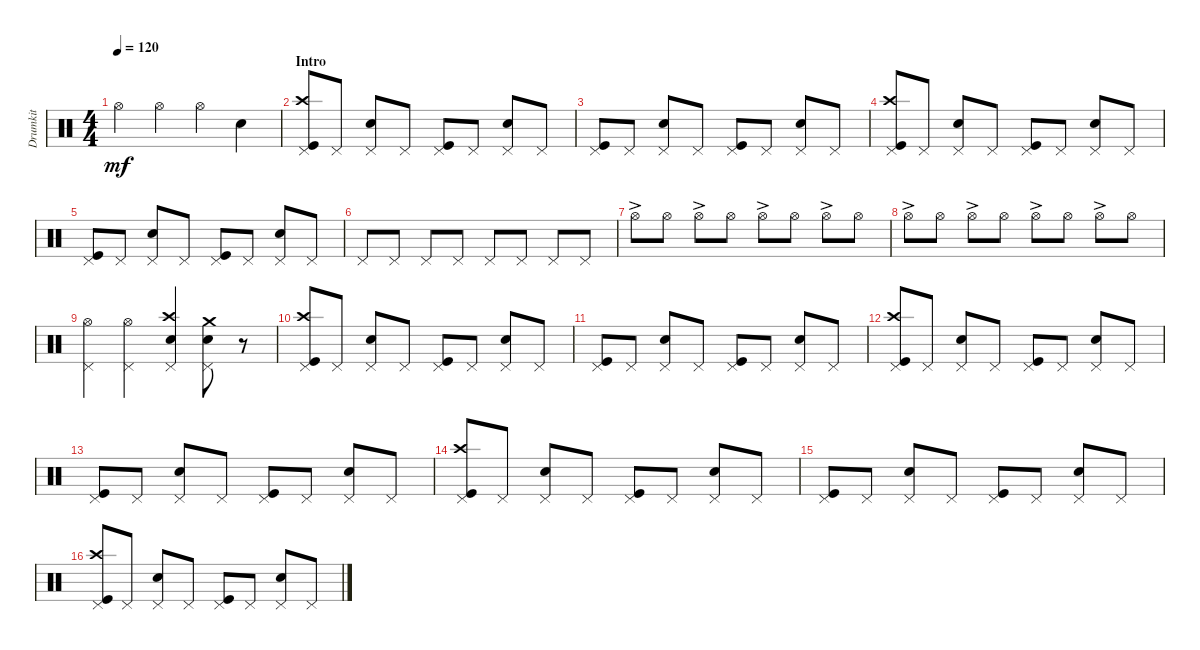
\track ("Drumkit" "Drumkit") {instrument percussion}
\staff {score}
\articulation defaults
\ts (4 4)
\tempo 120
\clef neutral
\ks c "Hi-Hat (open)".4{dy mf} "Hi-Hat (open)".4 "Hi-Hat (open)".4 "Snare (hit) 2".4
|
\section ("" "Intro")
("Kick (hit)" "Crash high (hit)" "Pedal Hi-Hat (hit)").8 "Pedal Hi-Hat (hit)".8 ("Pedal Hi-Hat (hit)" "Snare (hit) 2").8 "Pedal Hi-Hat (hit)".8 ("Kick (hit)" "Pedal Hi-Hat (hit)").8 "Pedal Hi-Hat (hit)".8 ("Pedal Hi-Hat (hit)" "Snare (hit) 2").8 "Pedal Hi-Hat (hit)".8 |
("Kick (hit)" "Pedal Hi-Hat (hit)").8 "Pedal Hi-Hat (hit)".8 ("Pedal Hi-Hat (hit)" "Snare (hit) 2").8 "Pedal Hi-Hat (hit)".8 ("Kick (hit)" "Pedal Hi-Hat (hit)").8 "Pedal Hi-Hat (hit)".8 ("Pedal Hi-Hat (hit)" "Snare (hit) 2").8 "Pedal Hi-Hat (hit)".8 |
("Kick (hit)" "Crash high (hit)" "Pedal Hi-Hat (hit)").8 "Pedal Hi-Hat (hit)".8 ("Pedal Hi-Hat (hit)" "Snare (hit) 2").8 "Pedal Hi-Hat (hit)".8 ("Kick (hit)" "Pedal Hi-Hat (hit)").8 "Pedal Hi-Hat (hit)".8 ("Pedal Hi-Hat (hit)" "Snare (hit) 2").8 "Pedal Hi-Hat (hit)".8 |
("Kick (hit)" "Pedal Hi-Hat (hit)").8 "Pedal Hi-Hat (hit)".8 ("Pedal Hi-Hat (hit)" "Snare (hit) 2").8 "Pedal Hi-Hat (hit)".8 ("Kick (hit)" "Pedal Hi-Hat (hit)").8 "Pedal Hi-Hat (hit)".8 ("Pedal Hi-Hat (hit)" "Snare (hit) 2").8 "Pedal Hi-Hat (hit)".8 |
"Pedal Hi-Hat (hit)".8 "Pedal Hi-Hat (hit)".8 "Pedal Hi-Hat (hit)".8 "Pedal Hi-Hat (hit)".8 "Pedal Hi-Hat (hit)".8 "Pedal Hi-Hat (hit)".8 "Pedal Hi-Hat (hit)".8 "Pedal Hi-Hat (hit)".8 |
"Hi-Hat (open)"{ac}.8 "Hi-Hat (open)".8 "Hi-Hat (open)"{ac}.8 "Hi-Hat (open)".8 "Hi-Hat (open)"{ac}.8 "Hi-Hat (open)".8 "Hi-Hat (open)"{ac}.8 "Hi-Hat (open)".8 |
"Hi-Hat (open)"{ac}.8 "Hi-Hat (open)".8 "Hi-Hat (open)"{ac}.8 "Hi-Hat (open)".8 "Hi-Hat (open)"{ac}.8 "Hi-Hat (open)".8 "Hi-Hat (open)"{ac}.8 "Hi-Hat (open)".8 |
("Pedal Hi-Hat (hit)" "Hi-Hat (open)").4 ("Pedal Hi-Hat (hit)" "Hi-Hat (open)").4 ("Pedal Hi-Hat (hit)" "Snare (hit) 2" "Crash high (hit)").4 ("Pedal Hi-Hat (hit)" "Snare (hit) 2" "Crash medium (hit)").8 r.8 |
("Kick (hit)" "Crash high (hit)" "Pedal Hi-Hat (hit)").8 "Pedal Hi-Hat (hit)".8 ("Pedal Hi-Hat (hit)" "Snare (hit) 2").8 "Pedal Hi-Hat (hit)".8 ("Kick (hit)" "Pedal Hi-Hat (hit)").8 "Pedal Hi-Hat (hit)".8 ("Pedal Hi-Hat (hit)" "Snare (hit) 2").8 "Pedal Hi-Hat (hit)".8 |
("Kick (hit)" "Pedal Hi-Hat (hit)").8 "Pedal Hi-Hat (hit)".8 ("Pedal Hi-Hat (hit)" "Snare (hit) 2").8 "Pedal Hi-Hat (hit)".8 ("Kick (hit)" "Pedal Hi-Hat (hit)").8 "Pedal Hi-Hat (hit)".8 ("Pedal Hi-Hat (hit)" "Snare (hit) 2").8 "Pedal Hi-Hat (hit)".8 |
("Kick (hit)" "Crash high (hit)" "Pedal Hi-Hat (hit)").8 "Pedal Hi-Hat (hit)".8 ("Pedal Hi-Hat (hit)" "Snare (hit) 2").8 "Pedal Hi-Hat (hit)".8 ("Kick (hit)" "Pedal Hi-Hat (hit)").8 "Pedal Hi-Hat (hit)".8 ("Pedal Hi-Hat (hit)" "Snare (hit) 2").8 "Pedal Hi-Hat (hit)".8 |
("Kick (hit)" "Pedal Hi-Hat (hit)").8 "Pedal Hi-Hat (hit)".8 ("Pedal Hi-Hat (hit)" "Snare (hit) 2").8 "Pedal Hi-Hat (hit)".8 ("Kick (hit)" "Pedal Hi-Hat (hit)").8 "Pedal Hi-Hat (hit)".8 ("Pedal Hi-Hat (hit)" "Snare (hit) 2").8 "Pedal Hi-Hat (hit)".8 |
("Kick (hit)" "Crash high (hit)" "Pedal Hi-Hat (hit)").8 "Pedal Hi-Hat (hit)".8 ("Pedal Hi-Hat (hit)" "Snare (hit) 2").8 "Pedal Hi-Hat (hit)".8 ("Kick (hit)" "Pedal Hi-Hat (hit)").8 "Pedal Hi-Hat (hit)".8 ("Pedal Hi-Hat (hit)" "Snare (hit) 2").8 "Pedal Hi-Hat (hit)".8 |
("Kick (hit)" "Pedal Hi-Hat (hit)").8 "Pedal Hi-Hat (hit)".8 ("Pedal Hi-Hat (hit)" "Snare (hit) 2").8 "Pedal Hi-Hat (hit)".8 ("Kick (hit)" "Pedal Hi-Hat (hit)").8 "Pedal Hi-Hat (hit)".8 ("Pedal Hi-Hat (hit)" "Snare (hit) 2").8 "Pedal Hi-Hat (hit)".8 |
("Kick (hit)" "Crash high (hit)" "Pedal Hi-Hat (hit)").8 "Pedal Hi-Hat (hit)".8 ("Pedal Hi-Hat (hit)" "Snare (hit) 2").8 "Pedal Hi-Hat (hit)".8 ("Kick (hit)" "Pedal Hi-Hat (hit)").8 "Pedal Hi-Hat (hit)".8 ("Pedal Hi-Hat (hit)" "Snare (hit) 2").8 "Pedal Hi-Hat (hit)".8
